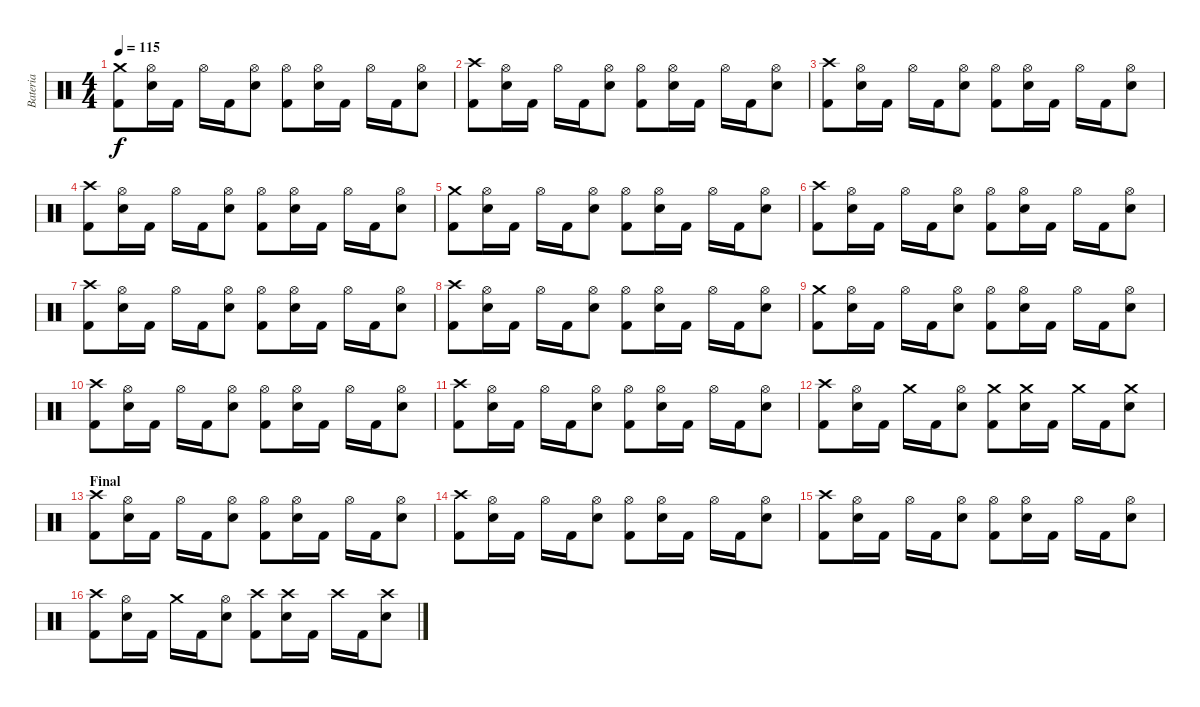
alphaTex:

\track ("Bateria" "Bateria") {instrument percussion}
\staff {score}
\articulation defaults
\ts (4 4)
\tempo 115
\clef neutral
\ks c
("Crash medium (hit)" "Kick (hit) 2").8{dy f} ("Hi-Hat (open)" "Electric Snare (hit)").16 "Kick (hit) 2".16 "Hi-Hat (open)".16 "Kick (hit) 2".16 ("Hi-Hat (open)" "Electric Snare (hit)").8 ("Hi-Hat (open)" "Kick (hit) 2").8 ("Hi-Hat (open)" "Electric Snare (hit)").16 "Kick (hit) 2".16 "Hi-Hat (open)".16 "Kick (hit) 2".16 ("Hi-Hat (open)" "Electric Snare (hit)").8 |
("Crash high (hit)" "Kick (hit) 2").8 ("Hi-Hat (open)" "Electric Snare (hit)").16 "Kick (hit) 2".16 "Hi-Hat (open)".16 "Kick (hit) 2".16 ("Hi-Hat (open)" "Electric Snare (hit)").8 ("Hi-Hat (open)" "Kick (hit) 2").8 ("Hi-Hat (open)" "Electric Snare (hit)").16 "Kick (hit) 2".16 "Hi-Hat (open)".16 "Kick (hit) 2".16 ("Hi-Hat (open)" "Electric Snare (hit)").8 |
("Crash high (hit)" "Kick (hit) 2").8 ("Hi-Hat (open)" "Electric Snare (hit)").16 "Kick (hit) 2".16 "Hi-Hat (open)".16 "Kick (hit) 2".16 ("Hi-Hat (open)" "Electric Snare (hit)").8 ("Hi-Hat (open)" "Kick (hit) 2").8 ("Hi-Hat (open)" "Electric Snare (hit)").16 "Kick (hit) 2".16 "Hi-Hat (open)".16 "Kick (hit) 2".16 ("Hi-Hat (open)" "Electric Snare (hit)").8 |
("Crash high (hit)" "Kick (hit) 2").8 ("Hi-Hat (open)" "Electric Snare (hit)").16 "Kick (hit) 2".16 "Hi-Hat (open)".16 "Kick (hit) 2".16 ("Hi-Hat (open)" "Electric Snare (hit)").8 ("Hi-Hat (open)" "Kick (hit) 2").8 ("Hi-Hat (open)" "Electric Snare (hit)").16 "Kick (hit) 2".16 "Hi-Hat (open)".16 "Kick (hit) 2".16 ("Hi-Hat (open)" "Electric Snare (hit)").8 |
("Crash medium (hit)" "Kick (hit) 2").8 ("Hi-Hat (open)" "Electric Snare (hit)").16 "Kick (hit) 2".16 "Hi-Hat (open)".16 "Kick (hit) 2".16 ("Hi-Hat (open)" "Electric Snare (hit)").8 ("Hi-Hat (open)" "Kick (hit) 2").8 ("Hi-Hat (open)" "Electric Snare (hit)").16 "Kick (hit) 2".16 "Hi-Hat (open)".16 "Kick (hit) 2".16 ("Hi-Hat (open)" "Electric Snare (hit)").8 |
("Crash high (hit)" "Kick (hit) 2").8 ("Hi-Hat (open)" "Electric Snare (hit)").16 "Kick (hit) 2".16 "Hi-Hat (open)".16 "Kick (hit) 2".16 ("Hi-Hat (open)" "Electric Snare (hit)").8 ("Hi-Hat (open)" "Kick (hit) 2").8 ("Hi-Hat (open)" "Electric Snare (hit)").16 "Kick (hit) 2".16 "Hi-Hat (open)".16 "Kick (hit) 2".16 ("Hi-Hat (open)" "Electric Snare (hit)").8 |
("Crash high (hit)" "Kick (hit) 2").8 ("Hi-Hat (open)" "Electric Snare (hit)").16 "Kick (hit) 2".16 "Hi-Hat (open)".16 "Kick (hit) 2".16 ("Hi-Hat (open)" "Electric Snare (hit)").8 ("Hi-Hat (open)" "Kick (hit) 2").8 ("Hi-Hat (open)" "Electric Snare (hit)").16 "Kick (hit) 2".16 "Hi-Hat (open)".16 "Kick (hit) 2".16 ("Hi-Hat (open)" "Electric Snare (hit)").8 |
("Crash high (hit)" "Kick (hit) 2").8 ("Hi-Hat (open)" "Electric Snare (hit)").16 "Kick (hit) 2".16 "Hi-Hat (open)".16 "Kick (hit) 2".16 ("Hi-Hat (open)" "Electric Snare (hit)").8 ("Hi-Hat (open)" "Kick (hit) 2").8 ("Hi-Hat (open)" "Electric Snare (hit)").16 "Kick (hit) 2".16 "Hi-Hat (open)".16 "Kick (hit) 2".16 ("Hi-Hat (open)" "Electric Snare (hit)").8 |
("Crash medium (hit)" "Kick (hit) 2").8 ("Hi-Hat (open)" "Electric Snare (hit)").16 "Kick (hit) 2".16 "Hi-Hat (open)".16 "Kick (hit) 2".16 ("Hi-Hat (open)" "Electric Snare (hit)").8 ("Hi-Hat (open)" "Kick (hit) 2").8 ("Hi-Hat (open)" "Electric Snare (hit)").16 "Kick (hit) 2".16 "Hi-Hat (open)".16 "Kick (hit) 2".16 ("Hi-Hat (open)" "Electric Snare (hit)").8 |
("Crash high (hit)" "Kick (hit) 2").8 ("Hi-Hat (open)" "Electric Snare (hit)").16 "Kick (hit) 2".16 "Hi-Hat (open)".16 "Kick (hit) 2".16 ("Hi-Hat (open)" "Electric Snare (hit)").8 ("Hi-Hat (open)" "Kick (hit) 2").8 ("Hi-Hat (open)" "Electric Snare (hit)").16 "Kick (hit) 2".16 "Hi-Hat (open)".16 "Kick (hit) 2".16 ("Hi-Hat (open)" "Electric Snare (hit)").8 |
("Crash high (hit)" "Kick (hit) 2").8 ("Hi-Hat (open)" "Electric Snare (hit)").16 "Kick (hit) 2".16 "Hi-Hat (open)".16 "Kick (hit) 2".16 ("Hi-Hat (open)" "Electric Snare (hit)").8 ("Hi-Hat (open)" "Kick (hit) 2").8 ("Hi-Hat (open)" "Electric Snare (hit)").16 "Kick (hit) 2".16 "Hi-Hat (open)".16 "Kick (hit) 2".16 ("Hi-Hat (open)" "Electric Snare (hit)").8 |
("Crash high (hit)" "Kick (hit) 2").8 ("Hi-Hat (open)" "Electric Snare (hit)").16 "Kick (hit) 2".16 "Crash medium (hit)".16 "Kick (hit) 2".16 ("Hi-Hat (open)" "Electric Snare (hit)").8 ("Crash medium (hit)" "Kick (hit) 2").8 ("Crash medium (hit)" "Electric Snare (hit)").16 "Kick (hit) 2".16 "Crash medium (hit)".16 "Kick (hit) 2".16 ("Crash medium (hit)" "Electric Snare (hit)").8 |
\section ("" "Final")
("Crash high (hit)" "Kick (hit) 2").8 ("Hi-Hat (open)" "Electric Snare (hit)").16 "Kick (hit) 2".16 "Hi-Hat (open)".16 "Kick (hit) 2".16 ("Hi-Hat (open)" "Electric Snare (hit)").8 ("Hi-Hat (open)" "Kick (hit) 2").8 ("Hi-Hat (open)" "Electric Snare (hit)").16 "Kick (hit) 2".16 "Hi-Hat (open)".16 "Kick (hit) 2".16 ("Hi-Hat (open)" "Electric Snare (hit)").8 |
("Crash high (hit)" "Kick (hit) 2").8 ("Hi-Hat (open)" "Electric Snare (hit)").16 "Kick (hit) 2".16 "Hi-Hat (open)".16 "Kick (hit) 2".16 ("Hi-Hat (open)" "Electric Snare (hit)").8 ("Hi-Hat (open)" "Kick (hit) 2").8 ("Hi-Hat (open)" "Electric Snare (hit)").16 "Kick (hit) 2".16 "Hi-Hat (open)".16 "Kick (hit) 2".16 ("Hi-Hat (open)" "Electric Snare (hit)").8 |
("Crash high (hit)" "Kick (hit) 2").8 ("Hi-Hat (open)" "Electric Snare (hit)").16 "Kick (hit) 2".16 "Hi-Hat (open)".16 "Kick (hit) 2".16 ("Hi-Hat (open)" "Electric Snare (hit)").8 ("Hi-Hat (open)" "Kick (hit) 2").8 ("Hi-Hat (open)" "Electric Snare (hit)").16 "Kick (hit) 2".16 "Hi-Hat (open)".16 "Kick (hit) 2".16 ("Hi-Hat (open)" "Electric Snare (hit)").8 |
("Crash high (hit)" "Kick (hit) 2").8 ("Hi-Hat (open)" "Electric Snare (hit)").16 "Kick (hit) 2".16 "Crash medium (hit)".16 "Kick (hit) 2".16 ("Hi-Hat (open)" "Electric Snare (hit)").8 ("Crash high (hit)" "Kick (hit) 2").8 ("Crash high (hit)" "Electric Snare (hit)").16 "Kick (hit) 2".16 "Crash high (hit)".16 "Kick (hit) 2".16 ("Crash high (hit)" "Electric Snare (hit)").8
